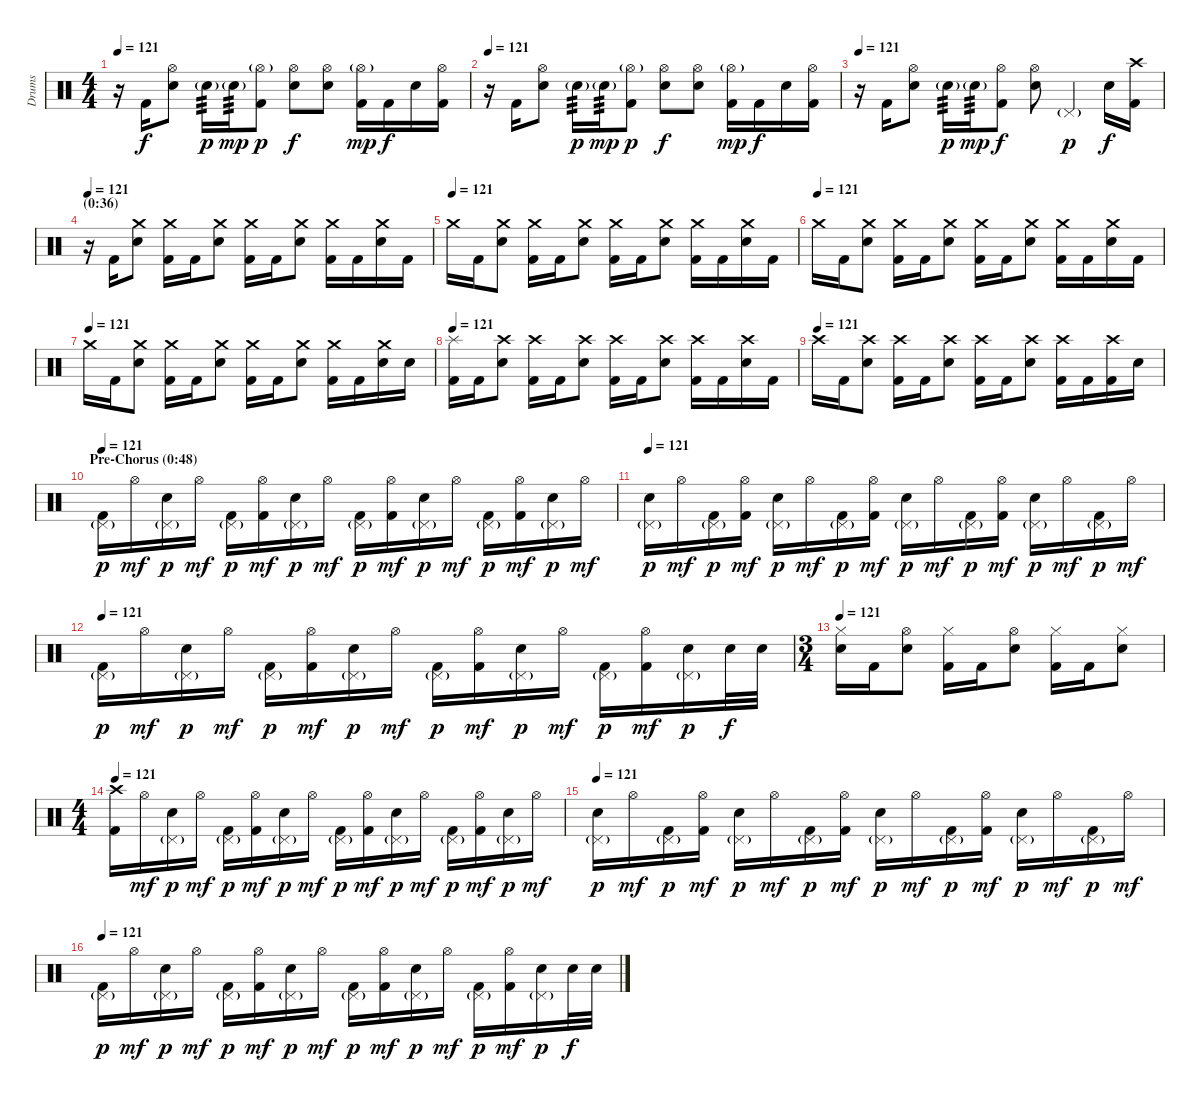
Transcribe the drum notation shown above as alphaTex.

\track ("Drums" "Drums") {instrument percussion}
\staff {score}
\articulation defaults
\ts (4 4)
\tempo 121
\clef neutral
\ks c
r.16{dy f} "Kick (hit) 2".16 ("Hi-Hat (open)" "Snare (hit) 2").8 "Snare (hit) 2"{g}.16{tp 3 dy p} "Snare (hit) 2"{g}.16{tp 3 dy mp} ("Hi-Hat (open)"{g} "Kick (hit) 2").8{dy p} ("Hi-Hat (open)" "Snare (hit) 2").8{dy f} ("Hi-Hat (open)" "Snare (hit) 2").8 ("Hi-Hat (open)"{g} "Kick (hit) 2").16{dy mp} "Kick (hit) 2".16{dy f} "Snare (hit) 2".16 ("Hi-Hat (open)" "Kick (hit) 2").16 |
\tempo 121
r.16 "Kick (hit) 2".16 ("Hi-Hat (open)" "Snare (hit) 2").8 "Snare (hit) 2"{g}.16{tp 3 dy p} "Snare (hit) 2"{g}.16{tp 3 dy mp} ("Hi-Hat (open)"{g} "Kick (hit) 2").8{dy p} ("Hi-Hat (open)" "Snare (hit) 2").8{dy f} ("Hi-Hat (open)" "Snare (hit) 2").8 ("Hi-Hat (open)"{g} "Kick (hit) 2").16{dy mp} "Kick (hit) 2".16{dy f} "Snare (hit) 2".16 ("Hi-Hat (open)" "Kick (hit) 2").16 |
\tempo 121
r.16 "Kick (hit) 2".16 ("Hi-Hat (open)" "Snare (hit) 2").8 "Snare (hit) 2"{g}.16{tp 3 dy p} "Snare (hit) 2"{g}.16{tp 3 dy mp} ("Hi-Hat (open)" "Kick (hit) 2").8{dy f} ("Hi-Hat (open)" "Snare (hit) 2").8 "Pedal Hi-Hat (hit)"{g}.4{dy p} "Snare (hit) 2".16{dy f} ("Crash high (hit)" "Kick (hit) 2").16 |
\section ("" "(0:36)")
\tempo 121
r.16 "Kick (hit) 2".16 ("Crash medium (hit)" "Snare (hit) 2").8 ("Crash medium (hit)" "Kick (hit) 2").16 "Kick (hit) 2".16 ("Crash medium (hit)" "Snare (hit) 2").8 ("Crash medium (hit)" "Kick (hit) 2").16 "Kick (hit) 2".16 ("Crash medium (hit)" "Snare (hit) 2").8 ("Crash medium (hit)" "Kick (hit) 2").16 "Kick (hit) 2".16 ("Crash medium (hit)" "Snare (hit) 2").16 "Kick (hit) 2".16 |
\tempo (121)
"Crash medium (hit)".16 "Kick (hit) 2".16 ("Crash medium (hit)" "Snare (hit) 2").8 ("Crash medium (hit)" "Kick (hit) 2").16 "Kick (hit) 2".16 ("Crash medium (hit)" "Snare (hit) 2").8 ("Crash medium (hit)" "Kick (hit) 2").16 "Kick (hit) 2".16 ("Crash medium (hit)" "Snare (hit) 2").8 ("Crash medium (hit)" "Kick (hit) 2").16 "Kick (hit) 2".16 ("Crash medium (hit)" "Snare (hit) 2").16 "Kick (hit) 2".16 |
\tempo (121)
"Crash medium (hit)".16 "Kick (hit) 2".16 ("Crash medium (hit)" "Snare (hit) 2").8 ("Crash medium (hit)" "Kick (hit) 2").16 "Kick (hit) 2".16 ("Crash medium (hit)" "Snare (hit) 2").8 ("Crash medium (hit)" "Kick (hit) 2").16 "Kick (hit) 2".16 ("Crash medium (hit)" "Snare (hit) 2").8 ("Crash medium (hit)" "Kick (hit) 2").16 "Kick (hit) 2".16 ("Crash medium (hit)" "Snare (hit) 2").16 "Kick (hit) 2".16 |
\tempo (121)
"Crash medium (hit)".16 "Kick (hit) 2".16 ("Crash medium (hit)" "Snare (hit) 2").8 ("Crash medium (hit)" "Kick (hit) 2").16 "Kick (hit) 2".16 ("Crash medium (hit)" "Snare (hit) 2").8 ("Crash medium (hit)" "Kick (hit) 2").16 "Kick (hit) 2".16 ("Crash medium (hit)" "Snare (hit) 2").8 ("Crash medium (hit)" "Kick (hit) 2").16 "Kick (hit) 2".16 ("Crash medium (hit)" "Snare (hit) 2").16 "Snare (hit) 2".16 |
\tempo 121
("Splash (hit)" "Kick (hit) 2").16 "Kick (hit) 2".16 ("Crash high (hit)" "Snare (hit) 2").8 ("Crash high (hit)" "Kick (hit) 2").16 "Kick (hit) 2".16 ("Crash high (hit)" "Snare (hit) 2").8 ("Crash high (hit)" "Kick (hit) 2").16 "Kick (hit) 2".16 ("Crash high (hit)" "Snare (hit) 2").8 ("Crash high (hit)" "Kick (hit) 2").16 "Kick (hit) 2".16 ("Crash high (hit)" "Snare (hit) 2").16 "Kick (hit) 2".16 |
\tempo (121)
"Crash high (hit)".16 "Kick (hit) 2".16 ("Crash high (hit)" "Snare (hit) 2").8 ("Crash high (hit)" "Kick (hit) 2").16 "Kick (hit) 2".16 ("Crash high (hit)" "Snare (hit) 2").8 ("Crash high (hit)" "Kick (hit) 2").16 "Kick (hit) 2".16 ("Crash high (hit)" "Snare (hit) 2").8 ("Crash high (hit)" "Kick (hit) 2").16 "Kick (hit) 2".16 ("Crash high (hit)" "Kick (hit) 2").16 "Snare (hit) 2".16 |
\section ("" "Pre-Chorus (0:48)")
\tempo 121
("Pedal Hi-Hat (hit)"{g} "Kick (hit) 2").16{dy p} "Hi-Hat (open)".16{dy mf} ("Pedal Hi-Hat (hit)"{g} "Snare (hit) 2").16{dy p} "Hi-Hat (open)".16{dy mf} ("Pedal Hi-Hat (hit)"{g} "Kick (hit) 2").16{dy p} ("Hi-Hat (open)" "Kick (hit) 2").16{dy mf} ("Pedal Hi-Hat (hit)"{g} "Snare (hit) 2").16{dy p} "Hi-Hat (open)".16{dy mf} ("Pedal Hi-Hat (hit)"{g} "Kick (hit) 2").16{dy p} ("Hi-Hat (open)" "Kick (hit) 2").16{dy mf} ("Pedal Hi-Hat (hit)"{g} "Snare (hit) 2").16{dy p} "Hi-Hat (open)".16{dy mf} ("Pedal Hi-Hat (hit)"{g} "Kick (hit) 2").16{dy p} ("Hi-Hat (open)" "Kick (hit) 2").16{dy mf} ("Pedal Hi-Hat (hit)"{g} "Snare (hit) 2").16{dy p} "Hi-Hat (open)".16{dy mf} |
\tempo 121
("Pedal Hi-Hat (hit)"{g} "Snare (hit) 2").16{dy p} "Hi-Hat (open)".16{dy mf} ("Pedal Hi-Hat (hit)"{g} "Kick (hit) 2").16{dy p} ("Hi-Hat (open)" "Kick (hit) 2").16{dy mf} ("Pedal Hi-Hat (hit)"{g} "Snare (hit) 2").16{dy p} "Hi-Hat (open)".16{dy mf} ("Pedal Hi-Hat (hit)"{g} "Kick (hit) 2").16{dy p} ("Hi-Hat (open)" "Kick (hit) 2").16{dy mf} ("Pedal Hi-Hat (hit)"{g} "Snare (hit) 2").16{dy p} "Hi-Hat (open)".16{dy mf} ("Pedal Hi-Hat (hit)"{g} "Kick (hit) 2").16{dy p} ("Hi-Hat (open)" "Kick (hit) 2").16{dy mf} ("Pedal Hi-Hat (hit)"{g} "Snare (hit) 2").16{dy p} "Hi-Hat (open)".16{dy mf} ("Pedal Hi-Hat (hit)"{g} "Kick (hit) 2").16{dy p} "Hi-Hat (open)".16{dy mf} |
\tempo 121
("Pedal Hi-Hat (hit)"{g} "Kick (hit) 2").16{dy p} "Hi-Hat (open)".16{dy mf} ("Pedal Hi-Hat (hit)"{g} "Snare (hit) 2").16{dy p} "Hi-Hat (open)".16{dy mf} ("Pedal Hi-Hat (hit)"{g} "Kick (hit) 2").16{dy p} ("Hi-Hat (open)" "Kick (hit) 2").16{dy mf} ("Pedal Hi-Hat (hit)"{g} "Snare (hit) 2").16{dy p} "Hi-Hat (open)".16{dy mf} ("Pedal Hi-Hat (hit)"{g} "Kick (hit) 2").16{dy p} ("Hi-Hat (open)" "Kick (hit) 2").16{dy mf} ("Pedal Hi-Hat (hit)"{g} "Snare (hit) 2").16{dy p} "Hi-Hat (open)".16{dy mf} ("Pedal Hi-Hat (hit)"{g} "Kick (hit) 2").16{dy p} ("Hi-Hat (open)" "Kick (hit) 2").16{dy mf} ("Pedal Hi-Hat (hit)"{g} "Snare (hit) 2").16{dy p} "Snare (hit) 2".32{dy f} "Snare (hit) 2".32 |
\ts (3 4)
\tempo 121
("Hi-Hat (closed)" "Snare (hit) 2").16 "Kick (hit) 2".16 ("Hi-Hat (open)" "Snare (hit) 2").8 ("Hi-Hat (closed)" "Kick (hit) 2").16 "Kick (hit) 2".16 ("Hi-Hat (open)" "Snare (hit) 2").8 ("Hi-Hat (closed)" "Kick (hit) 2").16 "Kick (hit) 2".16 ("Hi-Hat (closed)" "Snare (hit) 2").8 |
\ts (4 4)
\tempo 121
("Crash high (hit)" "Kick (hit) 2").16 "Hi-Hat (open)".16{dy mf} ("Pedal Hi-Hat (hit)"{g} "Snare (hit) 2").16{dy p} "Hi-Hat (open)".16{dy mf} ("Pedal Hi-Hat (hit)"{g} "Kick (hit) 2").16{dy p} ("Hi-Hat (open)" "Kick (hit) 2").16{dy mf} ("Pedal Hi-Hat (hit)"{g} "Snare (hit) 2").16{dy p} "Hi-Hat (open)".16{dy mf} ("Pedal Hi-Hat (hit)"{g} "Kick (hit) 2").16{dy p} ("Hi-Hat (open)" "Kick (hit) 2").16{dy mf} ("Pedal Hi-Hat (hit)"{g} "Snare (hit) 2").16{dy p} "Hi-Hat (open)".16{dy mf} ("Pedal Hi-Hat (hit)"{g} "Kick (hit) 2").16{dy p} ("Hi-Hat (open)" "Kick (hit) 2").16{dy mf} ("Pedal Hi-Hat (hit)"{g} "Snare (hit) 2").16{dy p} "Hi-Hat (open)".16{dy mf} |
\tempo 121
("Pedal Hi-Hat (hit)"{g} "Snare (hit) 2").16{dy p} "Hi-Hat (open)".16{dy mf} ("Pedal Hi-Hat (hit)"{g} "Kick (hit) 2").16{dy p} ("Hi-Hat (open)" "Kick (hit) 2").16{dy mf} ("Pedal Hi-Hat (hit)"{g} "Snare (hit) 2").16{dy p} "Hi-Hat (open)".16{dy mf} ("Pedal Hi-Hat (hit)"{g} "Kick (hit) 2").16{dy p} ("Hi-Hat (open)" "Kick (hit) 2").16{dy mf} ("Pedal Hi-Hat (hit)"{g} "Snare (hit) 2").16{dy p} "Hi-Hat (open)".16{dy mf} ("Pedal Hi-Hat (hit)"{g} "Kick (hit) 2").16{dy p} ("Hi-Hat (open)" "Kick (hit) 2").16{dy mf} ("Pedal Hi-Hat (hit)"{g} "Snare (hit) 2").16{dy p} "Hi-Hat (open)".16{dy mf} ("Pedal Hi-Hat (hit)"{g} "Kick (hit) 2").16{dy p} "Hi-Hat (open)".16{dy mf} |
\tempo 121
("Pedal Hi-Hat (hit)"{g} "Kick (hit) 2").16{dy p} "Hi-Hat (open)".16{dy mf} ("Pedal Hi-Hat (hit)"{g} "Snare (hit) 2").16{dy p} "Hi-Hat (open)".16{dy mf} ("Pedal Hi-Hat (hit)"{g} "Kick (hit) 2").16{dy p} ("Hi-Hat (open)" "Kick (hit) 2").16{dy mf} ("Pedal Hi-Hat (hit)"{g} "Snare (hit) 2").16{dy p} "Hi-Hat (open)".16{dy mf} ("Pedal Hi-Hat (hit)"{g} "Kick (hit) 2").16{dy p} ("Hi-Hat (open)" "Kick (hit) 2").16{dy mf} ("Pedal Hi-Hat (hit)"{g} "Snare (hit) 2").16{dy p} "Hi-Hat (open)".16{dy mf} ("Pedal Hi-Hat (hit)"{g} "Kick (hit) 2").16{dy p} ("Hi-Hat (open)" "Kick (hit) 2").16{dy mf} ("Pedal Hi-Hat (hit)"{g} "Snare (hit) 2").16{dy p} "Snare (hit) 2".32{dy f} "Snare (hit) 2".32
